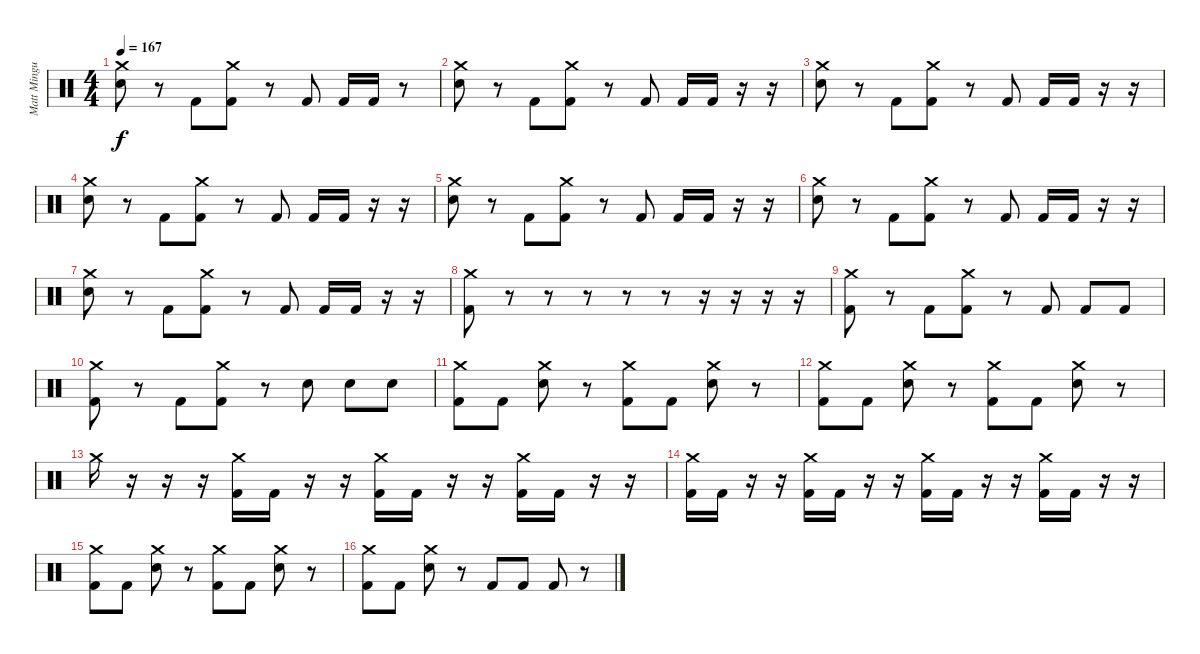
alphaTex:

\track ("Matt Mingus" "Matt Mingu") {instrument percussion}
\staff {score}
\articulation defaults
\ts (4 4)
\tempo 167
\clef neutral
\ks c
("Electric Snare (hit)" "Crash medium (hit)").8{dy f} r.8 "Kick (hit) 2".8 ("Kick (hit) 2" "Crash medium (hit)").8 r.8 "Kick (hit) 2".8 "Kick (hit) 2".16 "Kick (hit) 2".16 r.8 |
("Electric Snare (hit)" "Crash medium (hit)").8 r.8 "Kick (hit) 2".8 ("Kick (hit) 2" "Crash medium (hit)").8 r.8 "Kick (hit) 2".8 "Kick (hit) 2".16 "Kick (hit) 2".16 r.16 r.16 |
("Electric Snare (hit)" "Crash medium (hit)").8 r.8 "Kick (hit) 2".8 ("Kick (hit) 2" "Crash medium (hit)").8 r.8 "Kick (hit) 2".8 "Kick (hit) 2".16 "Kick (hit) 2".16 r.16 r.16 |
("Electric Snare (hit)" "Crash medium (hit)").8 r.8 "Kick (hit) 2".8 ("Kick (hit) 2" "Crash medium (hit)").8 r.8 "Kick (hit) 2".8 "Kick (hit) 2".16 "Kick (hit) 2".16 r.16 r.16 |
("Electric Snare (hit)" "Crash medium (hit)").8 r.8 "Kick (hit) 2".8 ("Kick (hit) 2" "Crash medium (hit)").8 r.8 "Kick (hit) 2".8 "Kick (hit) 2".16 "Kick (hit) 2".16 r.16 r.16 |
("Electric Snare (hit)" "Crash medium (hit)").8 r.8 "Kick (hit) 2".8 ("Kick (hit) 2" "Crash medium (hit)").8 r.8 "Kick (hit) 2".8 "Kick (hit) 2".16 "Kick (hit) 2".16 r.16 r.16 |
("Electric Snare (hit)" "Crash medium (hit)").8 r.8 "Kick (hit) 2".8 ("Kick (hit) 2" "Crash medium (hit)").8 r.8 "Kick (hit) 2".8 "Kick (hit) 2".16 "Kick (hit) 2".16 r.16 r.16 |
("Kick (hit) 2" "Crash medium (hit)").8 r.8 r.8 r.8 r.8 r.8 r.16 r.16 r.16 r.16 |
("Kick (hit) 2" "Crash medium (hit)").8 r.8 "Kick (hit) 2".8 ("Kick (hit) 2" "Crash medium (hit)").8 r.8 "Kick (hit) 2".8 "Kick (hit) 2".8 "Kick (hit) 2".8 |
("Kick (hit) 2" "Crash medium (hit)").8 r.8 "Kick (hit) 2".8 ("Kick (hit) 2" "Crash medium (hit)").8 r.8 "Electric Snare (hit)".8 "Electric Snare (hit)".8 "Electric Snare (hit)".8 |
("Kick (hit) 2" "Crash medium (hit)").8 "Kick (hit) 2".8 ("Electric Snare (hit)" "Crash medium (hit)").8 r.8 ("Kick (hit) 2" "Crash medium (hit)").8 "Kick (hit) 2".8 ("Electric Snare (hit)" "Crash medium (hit)").8 r.8 |
("Kick (hit) 2" "Crash medium (hit)").8 "Kick (hit) 2".8 ("Electric Snare (hit)" "Crash medium (hit)").8 r.8 ("Kick (hit) 2" "Crash medium (hit)").8 "Kick (hit) 2".8 ("Electric Snare (hit)" "Crash medium (hit)").8 r.8 |
"Crash medium (hit)".16 r.16 r.16 r.16 ("Kick (hit) 2" "Crash medium (hit)").16 "Kick (hit) 2".16 r.16 r.16 ("Kick (hit) 2" "Crash medium (hit)").16 "Kick (hit) 2".16 r.16 r.16 ("Kick (hit) 2" "Crash medium (hit)").16 "Kick (hit) 2".16 r.16 r.16 |
("Kick (hit) 2" "Crash medium (hit)").16 "Kick (hit) 2".16 r.16 r.16 ("Kick (hit) 2" "Crash medium (hit)").16 "Kick (hit) 2".16 r.16 r.16 ("Kick (hit) 2" "Crash medium (hit)").16 "Kick (hit) 2".16 r.16 r.16 ("Kick (hit) 2" "Crash medium (hit)").16 "Kick (hit) 2".16 r.16 r.16 |
("Kick (hit) 2" "Crash medium (hit)").8 "Kick (hit) 2".8 ("Electric Snare (hit)" "Crash medium (hit)").8 r.8 ("Kick (hit) 2" "Crash medium (hit)").8 "Kick (hit) 2".8 ("Electric Snare (hit)" "Crash medium (hit)").8 r.8 |
("Kick (hit) 2" "Crash medium (hit)").8 "Kick (hit) 2".8 ("Electric Snare (hit)" "Crash medium (hit)").8 r.8 "Kick (hit) 2".8 "Kick (hit) 2".8 "Kick (hit) 2".8 r.8
